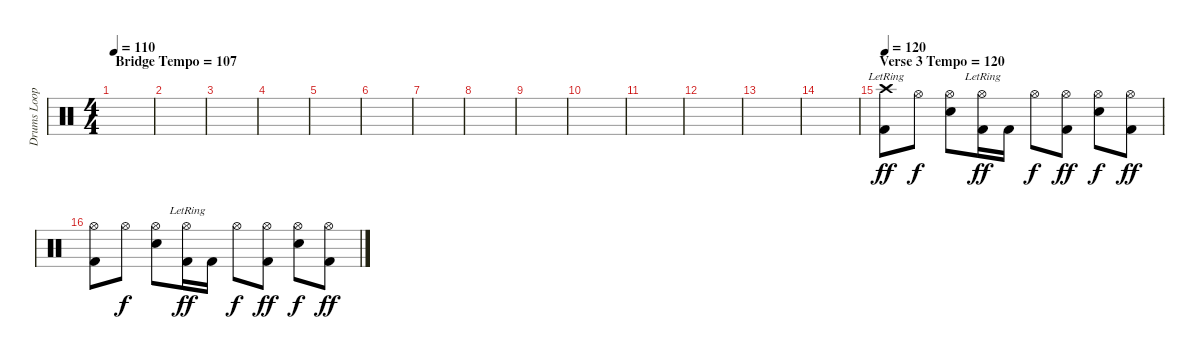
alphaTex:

\track ("Drums Looping" "Drums Loop") {instrument percussion}
\staff {score}
\articulation defaults
\ts (4 4)
\section ("" "Bridge Tempo = 107")
\tempo 110
\clef neutral
\ks c
|
|
|
|
|
|
|
|
|
|
|
|
|
|
\section ("" "Verse 3 Tempo = 120")
\tempo 120
("Crash high (hit)"{lr} "Kick (hit) 2").8{dy ff} "Hi-Hat (open)".8{dy f} ("Hi-Hat (open)" "Snare (hit) 2").8 ("Hi-Hat (open)"{lr} "Kick (hit) 2").16{dy ff} "Kick (hit) 2".16 "Hi-Hat (open)".8{dy f} ("Hi-Hat (open)" "Kick (hit) 2").8{dy ff} ("Hi-Hat (open)" "Snare (hit) 2").8{dy f} ("Hi-Hat (open)" "Kick (hit) 2").8{dy ff} |
("Hi-Hat (open)" "Kick (hit) 2").8 "Hi-Hat (open)".8{dy f} ("Hi-Hat (open)" "Snare (hit) 2").8 ("Hi-Hat (open)"{lr} "Kick (hit) 2").16{dy ff} "Kick (hit) 2".16 "Hi-Hat (open)".8{dy f} ("Hi-Hat (open)" "Kick (hit) 2").8{dy ff} ("Hi-Hat (open)" "Snare (hit) 2").8{dy f} ("Hi-Hat (open)" "Kick (hit) 2").8{dy ff}
